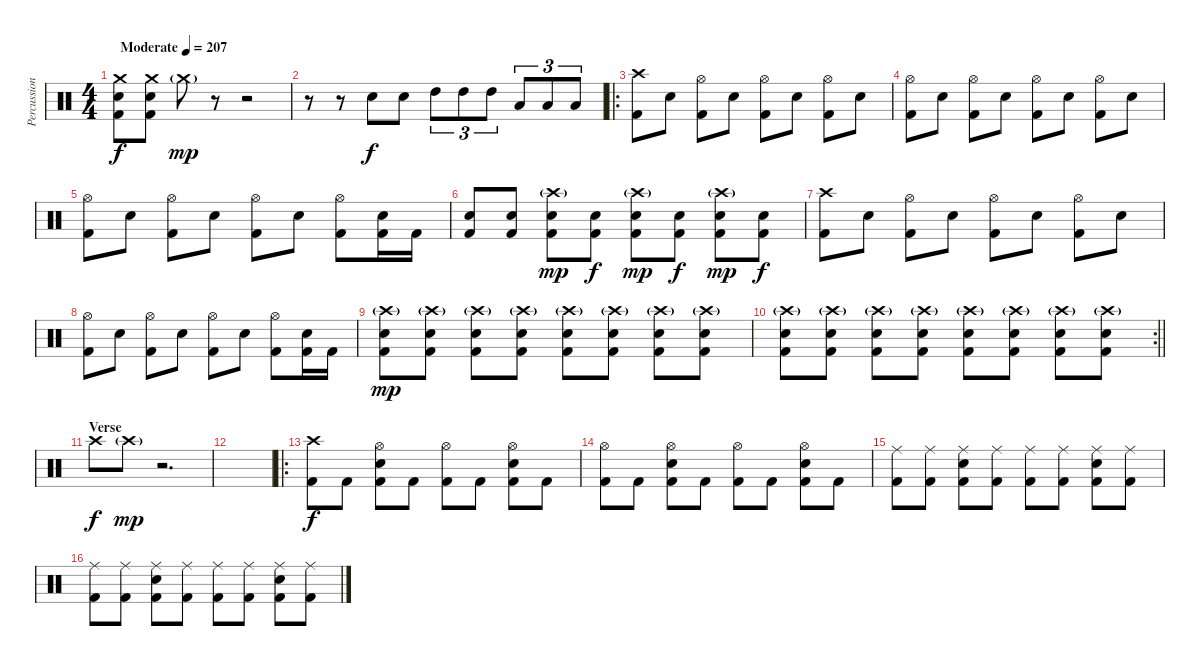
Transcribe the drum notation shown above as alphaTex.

\track ("Percussion" "Percussion") {instrument percussion}
\staff {score}
\articulation defaults
\ts (4 4)
\tempo (207 "Moderate")
\clef neutral
\ks c
("Crash medium (hit)" "Electric Snare (hit)" "Kick (hit) 2").8{dy f} ("Crash medium (hit)" "Electric Snare (hit)" "Kick (hit) 2").8 "Crash medium (hit)"{g}.8{dy mp} r.8 r.2 |
r.8 r.8 "Electric Snare (hit)".8{dy f} "Electric Snare (hit)".8 "High Tom (hit)".8{tu (3 2)} "High Tom (hit)".8{tu (3 2)} "High Tom (hit)".8{tu (3 2)} "Low Tom (hit)".8{tu (3 2)} "Low Tom (hit)".8{tu (3 2)} "Low Tom (hit)".8{tu (3 2)} |
\ro
("Crash high (hit)" "Kick (hit) 2").8 "Electric Snare (hit)".8 ("Hi-Hat (open)" "Kick (hit) 2").8 "Electric Snare (hit)".8 ("Hi-Hat (open)" "Kick (hit) 2").8 "Electric Snare (hit)".8 ("Hi-Hat (open)" "Kick (hit) 2").8 "Electric Snare (hit)".8 |
("Hi-Hat (open)" "Kick (hit) 2").8 "Electric Snare (hit)".8 ("Hi-Hat (open)" "Kick (hit) 2").8 "Electric Snare (hit)".8 ("Hi-Hat (open)" "Kick (hit) 2").8 "Electric Snare (hit)".8 ("Hi-Hat (open)" "Kick (hit) 2").8 "Electric Snare (hit)".8 |
("Hi-Hat (open)" "Kick (hit) 2").8 "Electric Snare (hit)".8 ("Hi-Hat (open)" "Kick (hit) 2").8 "Electric Snare (hit)".8 ("Hi-Hat (open)" "Kick (hit) 2").8 "Electric Snare (hit)".8 ("Hi-Hat (open)" "Kick (hit) 2").8 ("Electric Snare (hit)" "Kick (hit) 2").16 "Kick (hit) 2".16 |
("Electric Snare (hit)" "Kick (hit) 2").8 ("Electric Snare (hit)" "Kick (hit) 2").8 ("Crash high (hit)"{g} "Electric Snare (hit)" "Kick (hit) 2").8{dy mp} ("Electric Snare (hit)" "Kick (hit) 2").8{dy f} ("Crash high (hit)"{g} "Electric Snare (hit)" "Kick (hit) 2").8{dy mp} ("Electric Snare (hit)" "Kick (hit) 2").8{dy f} ("Crash high (hit)"{g} "Electric Snare (hit)" "Kick (hit) 2").8{dy mp} ("Electric Snare (hit)" "Kick (hit) 2").8{dy f} |
("Crash high (hit)" "Kick (hit) 2").8 "Electric Snare (hit)".8 ("Hi-Hat (open)" "Kick (hit) 2").8 "Electric Snare (hit)".8 ("Hi-Hat (open)" "Kick (hit) 2").8 "Electric Snare (hit)".8 ("Hi-Hat (open)" "Kick (hit) 2").8 "Electric Snare (hit)".8 |
("Hi-Hat (open)" "Kick (hit) 2").8 "Electric Snare (hit)".8 ("Hi-Hat (open)" "Kick (hit) 2").8 "Electric Snare (hit)".8 ("Hi-Hat (open)" "Kick (hit) 2").8 "Electric Snare (hit)".8 ("Hi-Hat (open)" "Kick (hit) 2").8 ("Electric Snare (hit)" "Kick (hit) 2").16 "Kick (hit) 2".16 |
("Crash high (hit)"{g} "Electric Snare (hit)" "Kick (hit) 2").8{dy mp} ("Crash high (hit)"{g} "Electric Snare (hit)" "Kick (hit) 2").8 ("Crash high (hit)"{g} "Electric Snare (hit)" "Kick (hit) 2").8 ("Crash high (hit)"{g} "Electric Snare (hit)" "Kick (hit) 2").8 ("Crash high (hit)"{g} "Electric Snare (hit)" "Kick (hit) 2").8 ("Crash high (hit)"{g} "Electric Snare (hit)" "Kick (hit) 2").8 ("Crash high (hit)"{g} "Electric Snare (hit)" "Kick (hit) 2").8 ("Crash high (hit)"{g} "Electric Snare (hit)" "Kick (hit) 2").8 |
\rc 2
\barLineRight lightlight
("Crash high (hit)"{g} "Electric Snare (hit)" "Kick (hit) 2").8 ("Crash high (hit)"{g} "Electric Snare (hit)" "Kick (hit) 2").8 ("Crash high (hit)"{g} "Electric Snare (hit)" "Kick (hit) 2").8 ("Crash high (hit)"{g} "Electric Snare (hit)" "Kick (hit) 2").8 ("Crash high (hit)"{g} "Electric Snare (hit)" "Kick (hit) 2").8 ("Crash high (hit)"{g} "Electric Snare (hit)" "Kick (hit) 2").8 ("Crash high (hit)"{g} "Electric Snare (hit)" "Kick (hit) 2").8 ("Crash high (hit)"{g} "Electric Snare (hit)" "Kick (hit) 2").8 |
\section ("" "Verse")
"Crash high (hit)".8{dy f} "Crash high (hit)"{g}.8{dy mp} r.2{d} |
|
\ro
("Crash high (hit)" "Kick (hit) 2").8{dy f} "Kick (hit) 2".8 ("Hi-Hat (open)" "Electric Snare (hit)" "Kick (hit) 2").8 "Kick (hit) 2".8 ("Hi-Hat (open)" "Kick (hit) 2").8 "Kick (hit) 2".8 ("Hi-Hat (open)" "Electric Snare (hit)" "Kick (hit) 2").8 "Kick (hit) 2".8 |
("Hi-Hat (open)" "Kick (hit) 2").8 "Kick (hit) 2".8 ("Hi-Hat (open)" "Electric Snare (hit)" "Kick (hit) 2").8 "Kick (hit) 2".8 ("Hi-Hat (open)" "Kick (hit) 2").8 "Kick (hit) 2".8 ("Hi-Hat (open)" "Electric Snare (hit)" "Kick (hit) 2").8 "Kick (hit) 2".8 |
("Ride (middle)" "Kick (hit) 2").8 ("Ride (middle)" "Kick (hit) 2").8 ("Ride (middle)" "Electric Snare (hit)" "Kick (hit) 2").8 ("Ride (middle)" "Kick (hit) 2").8 ("Ride (middle)" "Kick (hit) 2").8 ("Ride (middle)" "Kick (hit) 2").8 ("Ride (middle)" "Electric Snare (hit)" "Kick (hit) 2").8 ("Ride (middle)" "Kick (hit) 2").8 |
("Ride (middle)" "Kick (hit) 2").8 ("Ride (middle)" "Kick (hit) 2").8 ("Ride (middle)" "Electric Snare (hit)" "Kick (hit) 2").8 ("Ride (middle)" "Kick (hit) 2").8 ("Ride (middle)" "Kick (hit) 2").8 ("Ride (middle)" "Kick (hit) 2").8 ("Ride (middle)" "Electric Snare (hit)" "Kick (hit) 2").8 ("Ride (middle)" "Kick (hit) 2").8
